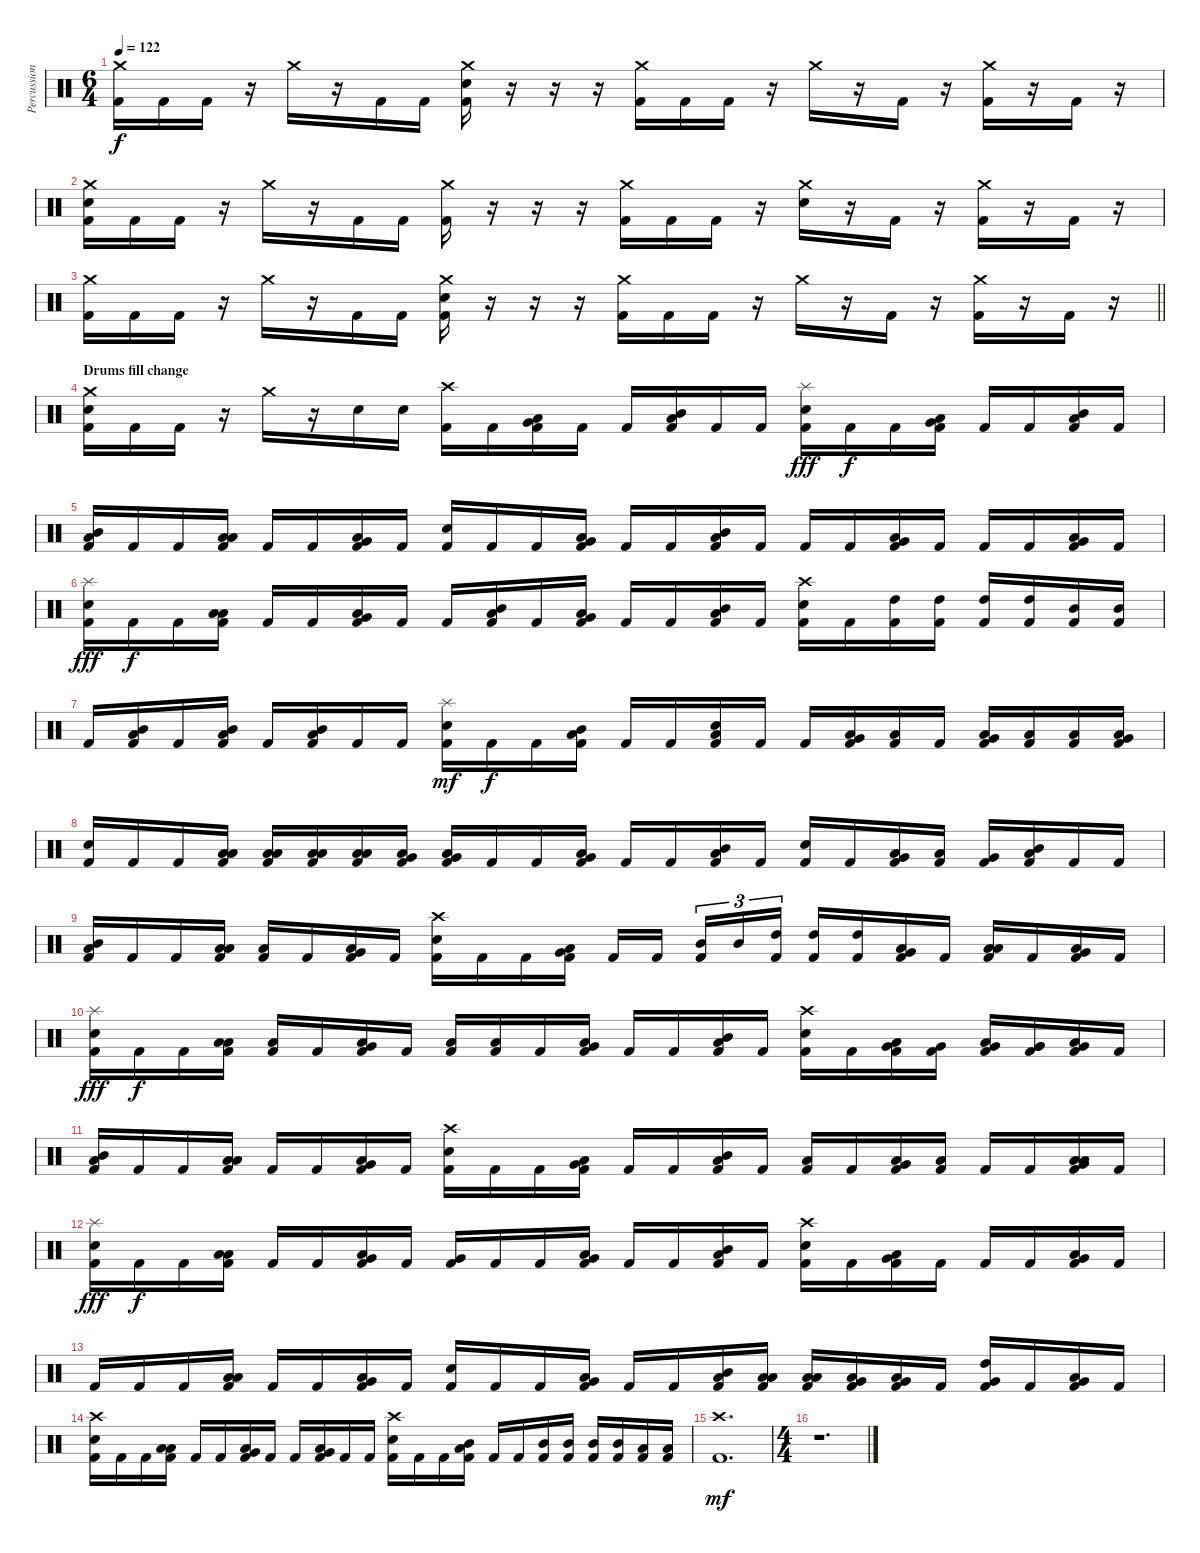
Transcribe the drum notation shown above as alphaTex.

\track ("Percussion" "Percussion") {instrument percussion}
\staff {score}
\articulation defaults
\ts (6 4)
\tempo 122
\clef neutral
\ks c
("Crash medium (hit)" "Kick (hit) 2").16{dy f} "Kick (hit) 2".16 "Kick (hit) 2".16 r.16 "Crash medium (hit)".16 r.16 "Kick (hit) 2".16 "Kick (hit) 2".16 ("Crash medium (hit)" "Electric Snare (hit)" "Kick (hit) 2").16 r.16 r.16 r.16 ("Crash medium (hit)" "Kick (hit) 2").16 "Kick (hit) 2".16 "Kick (hit) 2".16 r.16 "Crash medium (hit)".16 r.16 "Kick (hit) 2".16 r.16 ("Crash medium (hit)" "Kick (hit) 2").16 r.16 "Kick (hit) 2".16 r.16 |
("Crash medium (hit)" "Electric Snare (hit)" "Kick (hit) 2").16 "Kick (hit) 2".16 "Kick (hit) 2".16 r.16 "Crash medium (hit)".16 r.16 "Kick (hit) 2".16 "Kick (hit) 2".16 ("Crash medium (hit)" "Kick (hit) 2").16 r.16 r.16 r.16 ("Crash medium (hit)" "Kick (hit) 2").16 "Kick (hit) 2".16 "Kick (hit) 2".16 r.16 ("Crash medium (hit)" "Electric Snare (hit)").16 r.16 "Kick (hit) 2".16 r.16 ("Crash medium (hit)" "Kick (hit) 2").16 r.16 "Kick (hit) 2".16 r.16 |
\barLineRight lightlight
("Crash medium (hit)" "Kick (hit) 2").16 "Kick (hit) 2".16 "Kick (hit) 2".16 r.16 "Crash medium (hit)".16 r.16 "Kick (hit) 2".16 "Kick (hit) 2".16 ("Crash medium (hit)" "Electric Snare (hit)" "Kick (hit) 2").16 r.16 r.16 r.16 ("Crash medium (hit)" "Kick (hit) 2").16 "Kick (hit) 2".16 "Kick (hit) 2".16 r.16 "Crash medium (hit)".16 r.16 "Kick (hit) 2".16 r.16 ("Crash medium (hit)" "Kick (hit) 2").16 r.16 "Kick (hit) 2".16 r.16 |
\section ("" "Drums fill change")
("Crash medium (hit)" "Electric Snare (hit)" "Kick (hit) 2").16 "Kick (hit) 2".16 "Kick (hit) 2".16 r.16 "Crash medium (hit)".16 r.16 "Electric Snare (hit)".16 "Electric Snare (hit)".16 ("Crash high (hit)" "Kick (hit) 2").16 "Kick (hit) 2".16 ("Very Low Tom (hit)" "Low Tom (hit)" "Kick (hit) 2").16 "Kick (hit) 2".16 "Kick (hit) 2".16 ("Mid Tom (hit)" "Low Tom (hit)" "Kick (hit) 2").16 "Kick (hit) 2".16 "Kick (hit) 2".16 ("Splash (hit)" "Electric Snare (hit)" "Kick (hit) 2").16{dy fff} "Kick (hit) 2".16{dy f} "Kick (hit) 2".16 ("Very Low Tom (hit)" "Low Tom (hit)" "Kick (hit) 2").16 "Kick (hit) 2".16 "Kick (hit) 2".16 ("Mid Tom (hit)" "Low Tom (hit)" "Kick (hit) 2").16 "Kick (hit) 2".16 |
("Mid Tom (hit)" "Low Tom (hit)" "Kick (hit) 2").16 "Kick (hit) 2".16 "Kick (hit) 2".16 ("Low Tom (hit)" "Low Tom (hit)" "Kick (hit) 2").16 "Kick (hit) 2".16 "Kick (hit) 2".16 ("Very Low Tom (hit)" "Low Tom (hit)" "Kick (hit) 2").16 "Kick (hit) 2".16 ("Electric Snare (hit)" "Kick (hit) 2").16 "Kick (hit) 2".16 "Kick (hit) 2".16 ("Very Low Tom (hit)" "Low Tom (hit)" "Kick (hit) 2").16 "Kick (hit) 2".16 "Kick (hit) 2".16 ("Mid Tom (hit)" "Low Tom (hit)" "Kick (hit) 2").16 "Kick (hit) 2".16 "Kick (hit) 2".16 "Kick (hit) 2".16 ("Very Low Tom (hit)" "Low Tom (hit)" "Kick (hit) 2").16 "Kick (hit) 2".16 "Kick (hit) 2".16 "Kick (hit) 2".16 ("Very Low Tom (hit)" "Low Floor Tom (hit)" "Kick (hit) 2").16 "Kick (hit) 2".16 |
("Splash (hit)" "Electric Snare (hit)" "Kick (hit) 2").16{dy fff} "Kick (hit) 2".16{dy f} "Kick (hit) 2".16 ("Low Tom (hit)" "Low Tom (hit)" "Kick (hit) 2").16 "Kick (hit) 2".16 "Kick (hit) 2".16 ("Very Low Tom (hit)" "Low Tom (hit)" "Kick (hit) 2").16 "Kick (hit) 2".16 "Kick (hit) 2".16 ("Mid Tom (hit)" "Low Tom (hit)" "Kick (hit) 2").16 "Kick (hit) 2".16 ("Very Low Tom (hit)" "Low Tom (hit)" "Kick (hit) 2").16 "Kick (hit) 2".16 "Kick (hit) 2".16 ("Mid Tom (hit)" "Low Tom (hit)" "Kick (hit) 2").16 "Kick (hit) 2".16 ("Crash high (hit)" "Electric Snare (hit)" "Kick (hit) 2").16 "Kick (hit) 2".16 ("High Tom (hit)" "Kick (hit) 2").16 ("High Tom (hit)" "Kick (hit) 2").16 ("High Tom (hit)" "Kick (hit) 2").16 ("High Tom (hit)" "Kick (hit) 2").16 ("Mid Tom (hit)" "Kick (hit) 2").16 ("Mid Tom (hit)" "Kick (hit) 2").16 |
"Kick (hit) 2".16 ("Mid Tom (hit)" "Low Tom (hit)" "Kick (hit) 2").16 "Kick (hit) 2".16 ("Mid Tom (hit)" "Low Tom (hit)" "Kick (hit) 2").16 "Kick (hit) 2".16 ("Mid Tom (hit)" "Low Tom (hit)" "Kick (hit) 2").16 "Kick (hit) 2".16 "Kick (hit) 2".16 ("Splash (hit)" "Electric Snare (hit)" "Kick (hit) 2").16{dy mf} "Kick (hit) 2".16{dy f} "Kick (hit) 2".16 ("Mid Tom (hit)" "Low Tom (hit)" "Kick (hit) 2").16 "Kick (hit) 2".16 "Kick (hit) 2".16 ("Low Tom (hit)" "Electric Snare (hit)" "Kick (hit) 2").16 "Kick (hit) 2".16 "Kick (hit) 2".16 ("Low Floor Tom (hit)" "Very Low Tom (hit)" "Kick (hit) 2").16 ("Low Tom (hit)" "Kick (hit) 2").16 "Kick (hit) 2".16 ("Low Floor Tom (hit)" "Very Low Tom (hit)" "Kick (hit) 2").16 ("Low Tom (hit)" "Kick (hit) 2").16 ("Low Tom (hit)" "Kick (hit) 2").16 ("Low Floor Tom (hit)" "Very Low Tom (hit)" "Kick (hit) 2").16 |
("Electric Snare (hit)" "Kick (hit) 2").16 "Kick (hit) 2".16 "Kick (hit) 2".16 ("Low Tom (hit)" "Low Tom (hit)" "Kick (hit) 2").16 ("Low Tom (hit)" "Low Tom (hit)" "Kick (hit) 2").16 ("Low Tom (hit)" "Low Tom (hit)" "Kick (hit) 2").16 ("Low Tom (hit)" "Low Tom (hit)" "Kick (hit) 2").16 ("Very Low Tom (hit)" "Low Tom (hit)" "Kick (hit) 2").16 ("Very Low Tom (hit)" "Low Tom (hit)" "Kick (hit) 2").16 "Kick (hit) 2".16 "Kick (hit) 2".16 ("Very Low Tom (hit)" "Low Tom (hit)" "Kick (hit) 2").16 "Kick (hit) 2".16 "Kick (hit) 2".16 ("Mid Tom (hit)" "Low Tom (hit)" "Kick (hit) 2").16 "Kick (hit) 2".16 ("Electric Snare (hit)" "Kick (hit) 2").16 "Kick (hit) 2".16 ("Very Low Tom (hit)" "Low Tom (hit)" "Kick (hit) 2").16 ("Low Tom (hit)" "Kick (hit) 2").16 ("Very Low Tom (hit)" "Kick (hit) 2").16 ("Mid Tom (hit)" "Low Tom (hit)" "Kick (hit) 2").16 "Kick (hit) 2".16 "Kick (hit) 2".16 |
("Mid Tom (hit)" "Low Tom (hit)" "Kick (hit) 2").16 "Kick (hit) 2".16 "Kick (hit) 2".16 ("Low Tom (hit)" "Low Tom (hit)" "Kick (hit) 2").16 ("Low Tom (hit)" "Kick (hit) 2").16 "Kick (hit) 2".16 ("Very Low Tom (hit)" "Low Tom (hit)" "Kick (hit) 2").16 "Kick (hit) 2".16 ("Crash high (hit)" "Electric Snare (hit)" "Kick (hit) 2").16 "Kick (hit) 2".16 "Kick (hit) 2".16 ("Very Low Tom (hit)" "Low Tom (hit)" "Kick (hit) 2").16 "Kick (hit) 2".16 "Kick (hit) 2".16{beam splitsecondary} ("Mid Tom (hit)" "Kick (hit) 2").16{tu (3 2)} "Mid Tom (hit)".16{tu (3 2)} ("High Tom (hit)" "Kick (hit) 2").16{tu (3 2) beam splitsecondary} ("High Tom (hit)" "Kick (hit) 2").16 ("High Tom (hit)" "Kick (hit) 2").16 ("Very Low Tom (hit)" "Low Tom (hit)" "Kick (hit) 2").16 "Kick (hit) 2".16 ("Low Tom (hit)" "Low Tom (hit)" "Kick (hit) 2").16 "Kick (hit) 2".16 ("Very Low Tom (hit)" "Low Tom (hit)" "Kick (hit) 2").16 "Kick (hit) 2".16 |
("Splash (hit)" "Electric Snare (hit)" "Kick (hit) 2").16{dy fff} "Kick (hit) 2".16{dy f} "Kick (hit) 2".16 ("Low Tom (hit)" "Low Tom (hit)" "Kick (hit) 2").16 ("Low Floor Tom (hit)" "Kick (hit) 2").16 "Kick (hit) 2".16 ("Very Low Tom (hit)" "Low Tom (hit)" "Kick (hit) 2").16 "Kick (hit) 2".16 ("Low Floor Tom (hit)" "Kick (hit) 2").16 ("Low Tom (hit)" "Kick (hit) 2").16 "Kick (hit) 2".16 ("Very Low Tom (hit)" "Low Tom (hit)" "Kick (hit) 2").16 "Kick (hit) 2".16 "Kick (hit) 2".16 ("Mid Tom (hit)" "Low Tom (hit)" "Kick (hit) 2").16 "Kick (hit) 2".16 ("Crash high (hit)" "Electric Snare (hit)" "Kick (hit) 2").16 "Kick (hit) 2".16 ("Very Low Tom (hit)" "Low Tom (hit)" "Kick (hit) 2").16 ("Very Low Tom (hit)" "Kick (hit) 2").16 ("Very Low Tom (hit)" "Low Floor Tom (hit)" "Kick (hit) 2").16 ("Very Low Tom (hit)" "Very Low Tom (hit)" "Kick (hit) 2").16 ("Very Low Tom (hit)" "Low Floor Tom (hit)" "Kick (hit) 2").16 "Kick (hit) 2".16 |
("Mid Tom (hit)" "Low Tom (hit)" "Kick (hit) 2").16 "Kick (hit) 2".16 "Kick (hit) 2".16 ("Low Tom (hit)" "Low Tom (hit)" "Kick (hit) 2").16 "Kick (hit) 2".16 "Kick (hit) 2".16 ("Very Low Tom (hit)" "Low Tom (hit)" "Kick (hit) 2").16 "Kick (hit) 2".16 ("Crash high (hit)" "Electric Snare (hit)" "Kick (hit) 2").16 "Kick (hit) 2".16 "Kick (hit) 2".16 ("Very Low Tom (hit)" "Low Tom (hit)" "Kick (hit) 2").16 "Kick (hit) 2".16 "Kick (hit) 2".16 ("Mid Tom (hit)" "Low Tom (hit)" "Kick (hit) 2").16 "Kick (hit) 2".16 ("Low Floor Tom (hit)" "Kick (hit) 2").16 "Kick (hit) 2".16 ("Very Low Tom (hit)" "Low Tom (hit)" "Kick (hit) 2").16 ("Low Floor Tom (hit)" "Kick (hit) 2").16 "Kick (hit) 2".16 "Kick (hit) 2".16 ("Low Floor Tom (hit)" "Very Low Tom (hit)" "Low Floor Tom (hit)" "Kick (hit) 2").16 "Kick (hit) 2".16 |
("Splash (hit)" "Electric Snare (hit)" "Kick (hit) 2").16{dy fff} "Kick (hit) 2".16{dy f} "Kick (hit) 2".16 ("Low Tom (hit)" "Low Tom (hit)" "Kick (hit) 2").16 "Kick (hit) 2".16 "Kick (hit) 2".16 ("Very Low Tom (hit)" "Low Tom (hit)" "Kick (hit) 2").16 "Kick (hit) 2".16 ("Very Low Tom (hit)" "Kick (hit) 2").16 "Kick (hit) 2".16 "Kick (hit) 2".16 ("Very Low Tom (hit)" "Low Tom (hit)" "Kick (hit) 2").16 "Kick (hit) 2".16 "Kick (hit) 2".16 ("Mid Tom (hit)" "Low Tom (hit)" "Kick (hit) 2").16 "Kick (hit) 2".16 ("Crash high (hit)" "Electric Snare (hit)" "Kick (hit) 2").16 "Kick (hit) 2".16 ("Very Low Tom (hit)" "Low Tom (hit)" "Kick (hit) 2").16 "Kick (hit) 2".16 "Kick (hit) 2".16 "Kick (hit) 2".16 ("Very Low Tom (hit)" "Low Floor Tom (hit)" "Kick (hit) 2").16 "Kick (hit) 2".16 |
"Kick (hit) 2".16 "Kick (hit) 2".16 "Kick (hit) 2".16 ("Low Tom (hit)" "Low Tom (hit)" "Kick (hit) 2").16 "Kick (hit) 2".16 "Kick (hit) 2".16 ("Very Low Tom (hit)" "Low Tom (hit)" "Kick (hit) 2").16 "Kick (hit) 2".16 ("Electric Snare (hit)" "Kick (hit) 2").16 "Kick (hit) 2".16 "Kick (hit) 2".16 ("Very Low Tom (hit)" "Low Tom (hit)" "Kick (hit) 2").16 "Kick (hit) 2".16 "Kick (hit) 2".16 ("Mid Tom (hit)" "Low Tom (hit)" "Kick (hit) 2").16 ("Low Floor Tom (hit)" "Low Floor Tom (hit)" "Kick (hit) 2").16 ("Low Floor Tom (hit)" "Low Floor Tom (hit)" "Kick (hit) 2").16 ("Low Floor Tom (hit)" "Very Low Tom (hit)" "Kick (hit) 2").16 ("Very Low Tom (hit)" "Low Tom (hit)" "Kick (hit) 2").16 "Kick (hit) 2".16 ("High Tom (hit)" "Very Low Tom (hit)" "Kick (hit) 2").16 "Kick (hit) 2".16 ("Very Low Tom (hit)" "Low Floor Tom (hit)" "Kick (hit) 2").16 "Kick (hit) 2".16 |
("Crash high (hit)" "Electric Snare (hit)" "Kick (hit) 2").16 "Kick (hit) 2".16 "Kick (hit) 2".16 ("Low Tom (hit)" "Low Tom (hit)" "Kick (hit) 2").16 "Kick (hit) 2".16 "Kick (hit) 2".16 ("Very Low Tom (hit)" "Low Tom (hit)" "Kick (hit) 2").16 "Kick (hit) 2".16 "Kick (hit) 2".16 ("Very Low Tom (hit)" "Low Tom (hit)" "Kick (hit) 2").16 "Kick (hit) 2".16 "Kick (hit) 2".16 ("Crash high (hit)" "Electric Snare (hit)" "Kick (hit) 2").16 "Kick (hit) 2".16 "Kick (hit) 2".16 ("Mid Tom (hit)" "Low Tom (hit)" "Kick (hit) 2").16 "Kick (hit) 2".16 "Kick (hit) 2".16 ("Mid Tom (hit)" "Kick (hit) 2").16 ("Mid Tom (hit)" "Kick (hit) 2").16 ("Mid Tom (hit)" "Kick (hit) 2").16 ("Mid Tom (hit)" "Kick (hit) 2").16 ("Low Tom (hit)" "Kick (hit) 2").16 ("Low Tom (hit)" "Kick (hit) 2").16 |
("Crash high (hit)" "Kick (hit) 2").1{d dy mf} |
\ts (4 4)
r.1{d}
